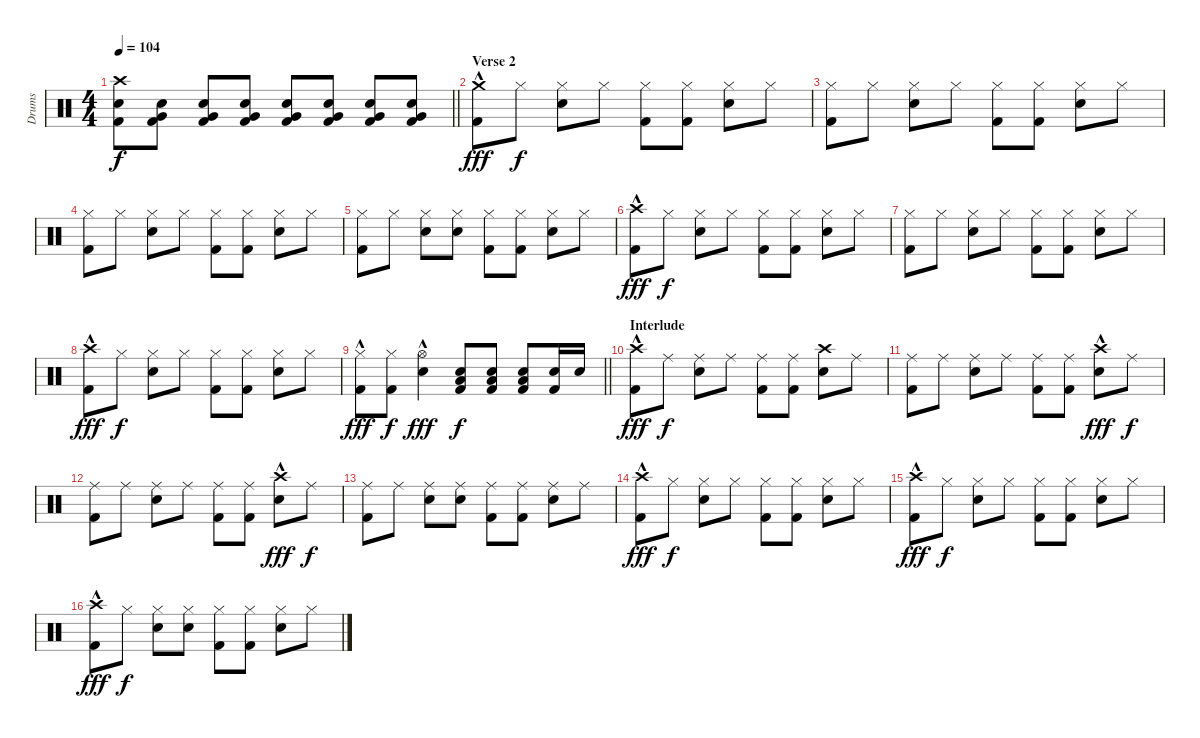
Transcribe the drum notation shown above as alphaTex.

\track ("Drums" "Drums") {instrument percussion}
\staff {score}
\articulation defaults
\ts (4 4)
\tempo 104
\clef neutral
\barLineRight lightlight
\ks c
("Crash high (hit)" "Kick (hit) 2" "Snare (hit) 2").8{dy f} ("Kick (hit) 2" "Snare (hit) 2" "Very Low Tom (hit)").8 ("Kick (hit) 2" "Snare (hit) 2" "Very Low Tom (hit)").8 ("Kick (hit) 2" "Snare (hit) 2" "Very Low Tom (hit)").8 ("Kick (hit) 2" "Snare (hit) 2" "Very Low Tom (hit)").8 ("Kick (hit) 2" "Snare (hit) 2" "Very Low Tom (hit)").8 ("Kick (hit) 2" "Snare (hit) 2" "Very Low Tom (hit)").8 ("Kick (hit) 2" "Snare (hit) 2" "Very Low Tom (hit)").8 |
\section ("" "Verse 2")
("Crash medium (hit)"{hac} "Kick (hit) 2").8{dy fff} "Hi-Hat (closed)".8{dy f} ("Hi-Hat (closed)" "Snare (hit) 2").8 "Hi-Hat (closed)".8 ("Hi-Hat (closed)" "Kick (hit) 2").8 ("Hi-Hat (closed)" "Kick (hit) 2").8 ("Hi-Hat (closed)" "Snare (hit) 2").8 "Hi-Hat (closed)".8 |
("Hi-Hat (closed)" "Kick (hit) 2").8 "Hi-Hat (closed)".8 ("Hi-Hat (closed)" "Snare (hit) 2").8 "Hi-Hat (closed)".8 ("Hi-Hat (closed)" "Kick (hit) 2").8 ("Hi-Hat (closed)" "Kick (hit) 2").8 ("Hi-Hat (closed)" "Snare (hit) 2").8 "Hi-Hat (closed)".8 |
("Hi-Hat (closed)" "Kick (hit) 2").8 "Hi-Hat (closed)".8 ("Hi-Hat (closed)" "Snare (hit) 2").8 "Hi-Hat (closed)".8 ("Hi-Hat (closed)" "Kick (hit) 2").8 ("Hi-Hat (closed)" "Kick (hit) 2").8 ("Hi-Hat (closed)" "Snare (hit) 2").8 "Hi-Hat (closed)".8 |
("Hi-Hat (closed)" "Kick (hit) 2").8 "Hi-Hat (closed)".8 ("Hi-Hat (closed)" "Snare (hit) 2").8 ("Hi-Hat (closed)" "Snare (hit) 2").8 ("Hi-Hat (closed)" "Kick (hit) 2").8 ("Hi-Hat (closed)" "Kick (hit) 2").8 ("Hi-Hat (closed)" "Snare (hit) 2").8 "Hi-Hat (closed)".8 |
("Crash high (hit)"{hac} "Kick (hit) 2").8{dy fff} "Hi-Hat (closed)".8{dy f} ("Hi-Hat (closed)" "Snare (hit) 2").8 "Hi-Hat (closed)".8 ("Hi-Hat (closed)" "Kick (hit) 2").8 ("Hi-Hat (closed)" "Kick (hit) 2").8 ("Hi-Hat (closed)" "Snare (hit) 2").8 "Hi-Hat (closed)".8 |
("Hi-Hat (closed)" "Kick (hit) 2").8 "Hi-Hat (closed)".8 ("Hi-Hat (closed)" "Snare (hit) 2").8 "Hi-Hat (closed)".8 ("Hi-Hat (closed)" "Kick (hit) 2").8 ("Hi-Hat (closed)" "Kick (hit) 2").8 ("Hi-Hat (closed)" "Snare (hit) 2").8 "Hi-Hat (closed)".8 |
("Crash high (hit)"{hac} "Kick (hit) 2").8{dy fff} "Hi-Hat (closed)".8{dy f} ("Hi-Hat (closed)" "Snare (hit) 2").8 "Hi-Hat (closed)".8 ("Hi-Hat (closed)" "Kick (hit) 2").8 ("Hi-Hat (closed)" "Kick (hit) 2").8 ("Hi-Hat (closed)" "Snare (hit) 2").8 "Hi-Hat (closed)".8 |
\barLineRight lightlight
("Hi-Hat (closed)"{hac} "Kick (hit) 2").8{dy fff} ("Hi-Hat (closed)" "Kick (hit) 2").8{dy f} ("Hi-Hat (open)"{hac} "Snare (hit) 2").4{dy fff} ("Kick (hit) 2" "Low Floor Tom (hit)" "Snare (hit) 2").8{dy f} ("Kick (hit) 2" "Low Floor Tom (hit)" "Snare (hit) 2").8 ("Kick (hit) 2" "Low Floor Tom (hit)" "Snare (hit) 2").8 ("Kick (hit) 2" "Snare (hit) 2").16 "Snare (hit) 2".16 |
\section ("" "Interlude")
("Crash high (hit)"{hac} "Kick (hit) 2").8{dy fff} "Ride (middle)".8{dy f} ("Ride (middle)" "Snare (hit) 2").8 "Ride (middle)".8 ("Ride (middle)" "Kick (hit) 2").8 ("Ride (middle)" "Kick (hit) 2").8 ("Crash high (hit)" "Snare (hit) 2").8 "Ride (middle)".8 |
("Ride (middle)" "Kick (hit) 2").8 "Ride (middle)".8 ("Ride (middle)" "Snare (hit) 2").8 "Ride (middle)".8 ("Ride (middle)" "Kick (hit) 2").8 ("Ride (middle)" "Kick (hit) 2").8 ("Crash high (hit)"{hac} "Snare (hit) 2").8{dy fff} "Ride (middle)".8{dy f} |
("Ride (middle)" "Kick (hit) 2").8 "Ride (middle)".8 ("Ride (middle)" "Snare (hit) 2").8 "Ride (middle)".8 ("Ride (middle)" "Kick (hit) 2").8 ("Ride (middle)" "Kick (hit) 2").8 ("Crash high (hit)"{hac} "Snare (hit) 2").8{dy fff} "Ride (middle)".8{dy f} |
("Ride (middle)" "Kick (hit) 2").8 "Ride (middle)".8 ("Ride (middle)" "Snare (hit) 2").8 ("Ride (middle)" "Snare (hit) 2").8 ("Ride (middle)" "Kick (hit) 2").8 ("Ride (middle)" "Kick (hit) 2").8 ("Ride (middle)" "Snare (hit) 2").8 "Ride (middle)".8 |
("Crash high (hit)"{hac} "Kick (hit) 2").8{dy fff} "Hi-Hat (closed)".8{dy f} ("Hi-Hat (closed)" "Snare (hit) 2").8 "Hi-Hat (closed)".8 ("Hi-Hat (closed)" "Kick (hit) 2").8 ("Hi-Hat (closed)" "Kick (hit) 2").8 ("Hi-Hat (closed)" "Snare (hit) 2").8 "Hi-Hat (closed)".8 |
("Crash high (hit)"{hac} "Kick (hit) 2").8{dy fff} "Hi-Hat (closed)".8{dy f} ("Hi-Hat (closed)" "Snare (hit) 2").8 "Hi-Hat (closed)".8 ("Hi-Hat (closed)" "Kick (hit) 2").8 ("Hi-Hat (closed)" "Kick (hit) 2").8 ("Hi-Hat (closed)" "Snare (hit) 2").8 "Hi-Hat (closed)".8 |
("Crash high (hit)"{hac} "Kick (hit) 2").8{dy fff} "Hi-Hat (closed)".8{dy f} ("Hi-Hat (closed)" "Snare (hit) 2").8 ("Hi-Hat (closed)" "Snare (hit) 2").8 ("Hi-Hat (closed)" "Kick (hit) 2").8 ("Hi-Hat (closed)" "Kick (hit) 2").8 ("Hi-Hat (closed)" "Snare (hit) 2").8 "Hi-Hat (closed)".8
